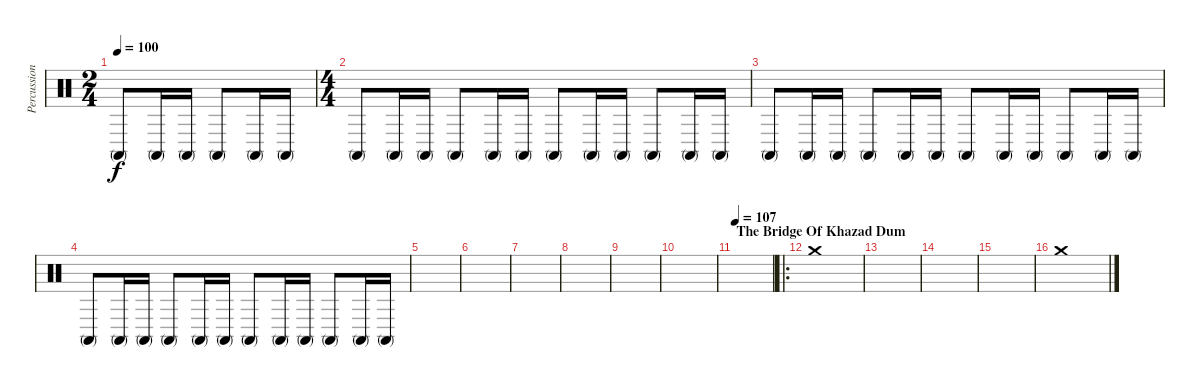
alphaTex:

\track ("Percussioni" "Percussion") {instrument percussion}
\staff {score}
\articulation defaults
\ts (2 4)
\tempo 100
\clef neutral
\ks c "Conga high (mute)".8{dy f} "Conga high (mute)".16 "Conga high (mute)".16 "Conga high (mute)".8 "Conga high (mute)".16 "Conga high (mute)".16
|
\ts (4 4)
"Conga high (mute)".8 "Conga high (mute)".16 "Conga high (mute)".16 "Conga high (mute)".8 "Conga high (mute)".16 "Conga high (mute)".16 "Conga high (mute)".8 "Conga high (mute)".16 "Conga high (mute)".16 "Conga high (mute)".8 "Conga high (mute)".16 "Conga high (mute)".16 |
"Conga high (mute)".8 "Conga high (mute)".16 "Conga high (mute)".16 "Conga high (mute)".8 "Conga high (mute)".16 "Conga high (mute)".16 "Conga high (mute)".8 "Conga high (mute)".16 "Conga high (mute)".16 "Conga high (mute)".8 "Conga high (mute)".16 "Conga high (mute)".16 |
"Conga high (mute)".8 "Conga high (mute)".16 "Conga high (mute)".16 "Conga high (mute)".8 "Conga high (mute)".16 "Conga high (mute)".16 "Conga high (mute)".8 "Conga high (mute)".16 "Conga high (mute)".16 "Conga high (mute)".8 "Conga high (mute)".16 "Conga high (mute)".16 |
|
|
|
|
|
|
\section ("" "The Bridge Of Khazad Dum")
\tempo 105
\tempo 107
|
\ro "Crash medium (hit)".1
|
|
|
|
"Crash medium (hit)".1
